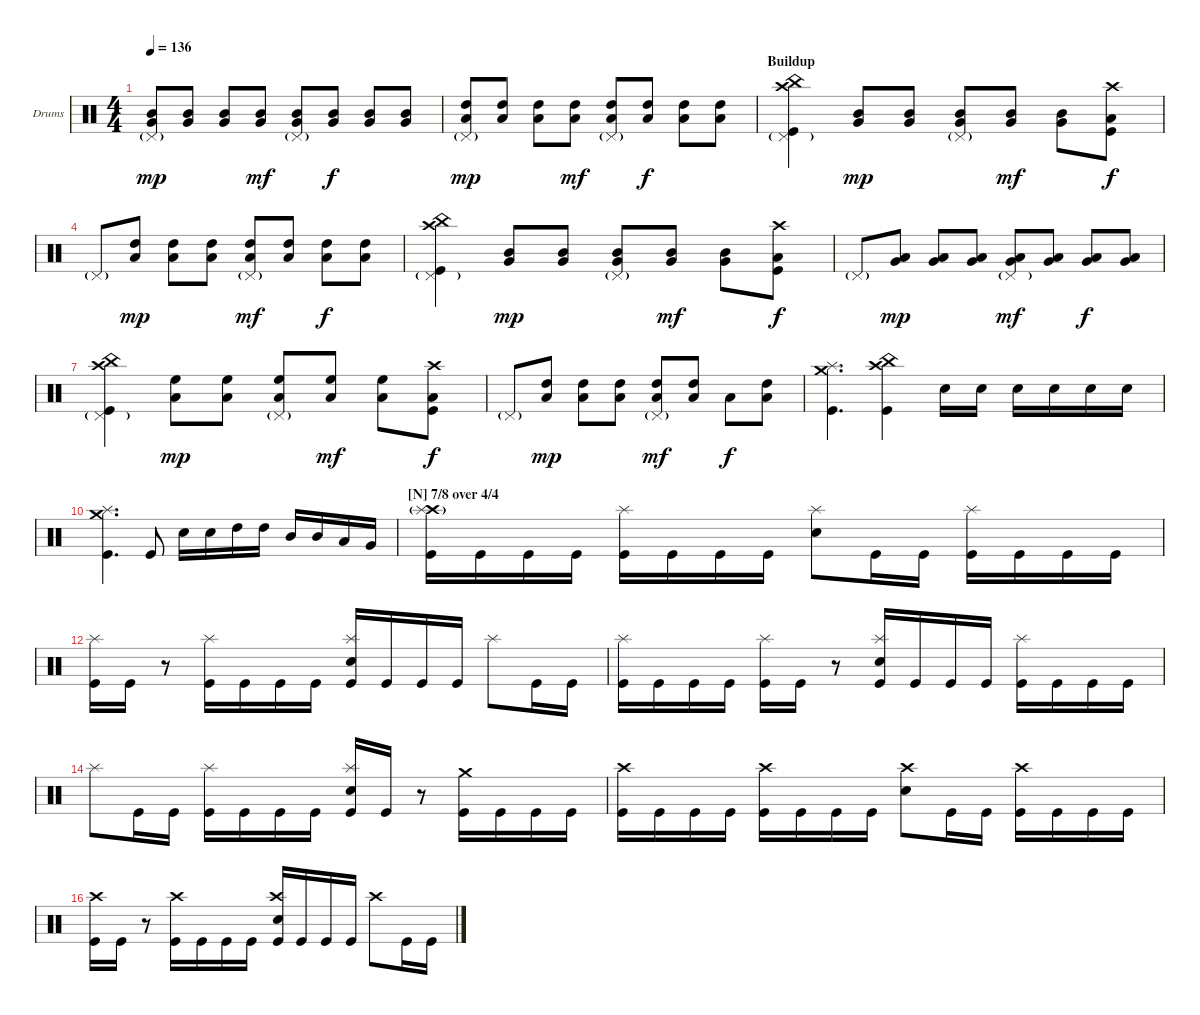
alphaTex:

\defaultSystemsLayout 4
\bracketExtendMode groupsimilarinstruments
\firstSystemTrackNameOrientation horizontal
\otherSystemsTrackNameOrientation horizontal
\defaultBarNumberDisplay FirstOfSystem
\track ("Drumkit" "Drums") {multiBarRest instrument percussion}
\staff {score}
\articulation defaults
\ts (4 4)
\tempo 136
\clef neutral
\ks c
("Pedal Hi-Hat (hit)"{g} "Very Low Tom (hit)" "Mid Tom (hit)").8{dy mp} ("Very Low Tom (hit)" "Mid Tom (hit)").8 ("Very Low Tom (hit)" "Mid Tom (hit)").8 ("Very Low Tom (hit)" "Mid Tom (hit)").8{dy mf} ("Very Low Tom (hit)" "Pedal Hi-Hat (hit)"{g} "Mid Tom (hit)").8 ("Very Low Tom (hit)" "Mid Tom (hit)").8{dy f} ("Very Low Tom (hit)" "Mid Tom (hit)").8 ("Very Low Tom (hit)" "Mid Tom (hit)").8 |
("Pedal Hi-Hat (hit)"{g} "Low Tom (hit)" "High Tom (hit)").8{dy mp} ("Low Tom (hit)" "High Tom (hit)").8 ("Low Tom (hit)" "High Tom (hit)").8 ("Low Tom (hit)" "High Tom (hit)").8{dy mf} ("Low Tom (hit)" "Pedal Hi-Hat (hit)"{g} "High Tom (hit)").8 ("Low Tom (hit)" "High Tom (hit)").8{dy f} ("Low Tom (hit)" "High Tom (hit)").8 ("Low Tom (hit)" "High Tom (hit)").8 |
\section ("" "Buildup")
("Kick (hit)" "China (hit)" "Crash high (hit)" "Pedal Hi-Hat (hit)"{g}).4 ("Very Low Tom (hit)" "Mid Tom (hit)").8{dy mp} ("Very Low Tom (hit)" "Mid Tom (hit)").8 ("Very Low Tom (hit)" "Mid Tom (hit)" "Pedal Hi-Hat (hit)"{g}).8 ("Very Low Tom (hit)" "Mid Tom (hit)").8{dy mf} ("Very Low Tom (hit)" "Mid Tom (hit)").8 ("Kick (hit)" "Crash high (hit)" "Low Tom (hit)").8{dy f} |
"Pedal Hi-Hat (hit)"{g}.8 ("Low Tom (hit)" "High Tom (hit)").8{dy mp} ("Low Tom (hit)" "High Tom (hit)").8 ("Low Tom (hit)" "High Tom (hit)").8 ("Low Tom (hit)" "High Tom (hit)" "Pedal Hi-Hat (hit)"{g}).8{dy mf} ("Low Tom (hit)" "High Tom (hit)").8 ("Low Tom (hit)" "High Tom (hit)").8{dy f} ("Low Tom (hit)" "High Tom (hit)").8 |
("Kick (hit)" "China (hit)" "Crash high (hit)" "Pedal Hi-Hat (hit)"{g}).4 ("Very Low Tom (hit)" "Mid Tom (hit)").8{dy mp} ("Very Low Tom (hit)" "Mid Tom (hit)").8 ("Very Low Tom (hit)" "Mid Tom (hit)" "Pedal Hi-Hat (hit)"{g}).8 ("Very Low Tom (hit)" "Mid Tom (hit)").8{dy mf} ("Very Low Tom (hit)" "Mid Tom (hit)").8 ("Kick (hit)" "Crash high (hit)" "Low Tom (hit)").8{dy f} |
"Pedal Hi-Hat (hit)"{g}.8 ("Very Low Tom (hit)" "Low Tom (hit)").8{dy mp} ("Low Tom (hit)" "Very Low Tom (hit)").8 ("Low Tom (hit)" "Very Low Tom (hit)").8 ("Low Tom (hit)" "Pedal Hi-Hat (hit)"{g} "Very Low Tom (hit)").8{dy mf} ("Low Tom (hit)" "Very Low Tom (hit)").8 ("Low Tom (hit)" "Very Low Tom (hit)").8{dy f} ("Low Tom (hit)" "Very Low Tom (hit)").8 |
("Kick (hit)" "China (hit)" "Crash high (hit)" "Pedal Hi-Hat (hit)"{g}).4 ("Low Tom (hit)" "High Floor Tom (hit)").8{dy mp} ("High Floor Tom (hit)" "Low Tom (hit)").8 ("Pedal Hi-Hat (hit)"{g} "High Floor Tom (hit)" "Low Tom (hit)").8 ("High Floor Tom (hit)" "Low Tom (hit)").8{dy mf} ("High Floor Tom (hit)" "Low Tom (hit)").8 ("Kick (hit)" "Crash high (hit)" "Low Tom (hit)").8{dy f} |
"Pedal Hi-Hat (hit)"{g}.8 ("High Tom (hit)" "Low Tom (hit)").8{dy mp} ("Low Tom (hit)" "High Tom (hit)").8 ("Low Tom (hit)" "High Tom (hit)").8 ("Low Tom (hit)" "Pedal Hi-Hat (hit)"{g} "High Tom (hit)").8{dy mf} ("Low Tom (hit)" "High Tom (hit)").8 "Low Tom (hit)".8{dy f} ("Low Tom (hit)" "High Tom (hit)").8 |
("Splash (hit)" "Crash medium (hit)" "Kick (hit)").4{d} ("Kick (hit)" "China (hit)" "Crash high (hit)").4 "Snare (hit) 2".16 "Snare (hit) 2".16 "Snare (hit) 2".16 "Snare (hit) 2".16 "Snare (hit) 2".16 "Snare (hit) 2".16 |
("Splash (hit)" "Crash medium (hit)" "Kick (hit)").4{d} "Kick (hit)".8 "Snare (hit) 2".16 "Snare (hit) 2".16 "High Tom (hit)".16 "High Tom (hit)".16 "Mid Tom (hit)".16 "Mid Tom (hit)".16 "Low Tom (hit)".16 "Very Low Tom (hit)".16 |
\section ("N" "7/8 over 4/4")
("Crash high (hit)" "Kick (hit)" "Splash (hit)"{g}).16 "Kick (hit)".16 "Kick (hit)".16 "Kick (hit)".16 ("Kick (hit)" "Splash (hit)").16 "Kick (hit)".16 "Kick (hit)".16 "Kick (hit)".16 ("Snare (hit) 2" "Splash (hit)").8 "Kick (hit)".16 "Kick (hit)".16 ("Kick (hit)" "Splash (hit)").16 "Kick (hit)".16 "Kick (hit)".16 "Kick (hit)".16 |
("Splash (hit)" "Kick (hit)").16 "Kick (hit)".16 r.8 ("Splash (hit)" "Kick (hit)").16 "Kick (hit)".16 "Kick (hit)".16 "Kick (hit)".16 ("Kick (hit)" "Snare (hit) 2" "Splash (hit)").16 "Kick (hit)".16 "Kick (hit)".16 "Kick (hit)".16 "Splash (hit)".8 "Kick (hit)".16 "Kick (hit)".16 |
("Kick (hit)" "Splash (hit)").16 "Kick (hit)".16 "Kick (hit)".16 "Kick (hit)".16 ("Kick (hit)" "Splash (hit)").16 "Kick (hit)".16 r.8 ("Kick (hit)" "Splash (hit)" "Snare (hit) 2").16 "Kick (hit)".16 "Kick (hit)".16 "Kick (hit)".16 ("Kick (hit)" "Splash (hit)").16 "Kick (hit)".16 "Kick (hit)".16 "Kick (hit)".16 |
"Splash (hit)".8 "Kick (hit)".16 "Kick (hit)".16 ("Kick (hit)" "Splash (hit)").16 "Kick (hit)".16 "Kick (hit)".16 "Kick (hit)".16 ("Kick (hit)" "Splash (hit)" "Snare (hit) 2").16 "Kick (hit)".16 r.8 ("Kick (hit)" "Crash medium (hit)").16 "Kick (hit)".16 "Kick (hit)".16 "Kick (hit)".16 |
("Kick (hit)" "Crash high (hit)").16 "Kick (hit)".16 "Kick (hit)".16 "Kick (hit)".16 ("Kick (hit)" "Crash high (hit)").16 "Kick (hit)".16 "Kick (hit)".16 "Kick (hit)".16 ("Crash high (hit)" "Snare (hit) 2").8 "Kick (hit)".16 "Kick (hit)".16 ("Kick (hit)" "Crash high (hit)").16 "Kick (hit)".16 "Kick (hit)".16 "Kick (hit)".16 |
("Kick (hit)" "Crash high (hit)").16 "Kick (hit)".16 r.8 ("Kick (hit)" "Crash high (hit)").16 "Kick (hit)".16 "Kick (hit)".16 "Kick (hit)".16 ("Kick (hit)" "Crash high (hit)" "Snare (hit) 2").16 "Kick (hit)".16 "Kick (hit)".16 "Kick (hit)".16 "Crash high (hit)".8 "Kick (hit)".16 "Kick (hit)".16
